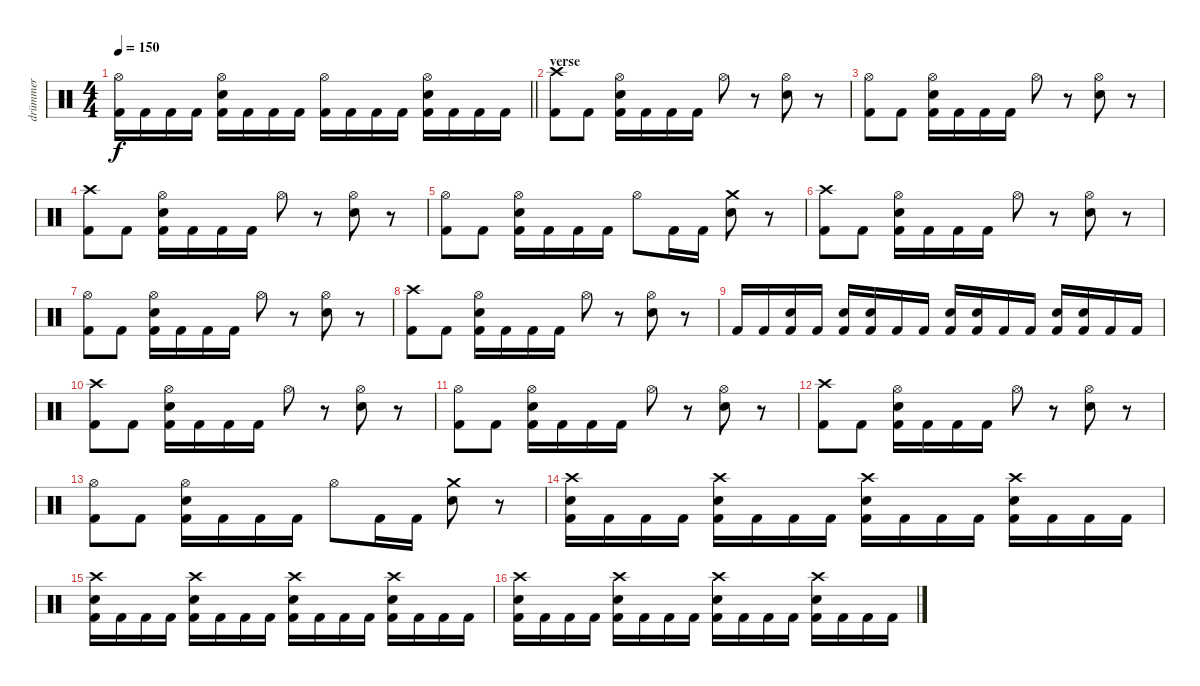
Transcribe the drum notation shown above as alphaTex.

\track ("drümmer" "drümmer") {instrument percussion}
\staff {score}
\articulation defaults
\ts (4 4)
\tempo 150
\clef neutral
\barLineRight lightlight
\ks c
("Hi-Hat (open)" "Kick (hit) 2").16{dy f} "Kick (hit) 2".16 "Kick (hit) 2".16 "Kick (hit) 2".16 ("Hi-Hat (open)" "Snare (hit) 2" "Kick (hit) 2").16 "Kick (hit) 2".16 "Kick (hit) 2".16 "Kick (hit) 2".16 ("Hi-Hat (open)" "Kick (hit) 2").16 "Kick (hit) 2".16 "Kick (hit) 2".16 "Kick (hit) 2".16 ("Hi-Hat (open)" "Snare (hit) 2" "Kick (hit) 2").16 "Kick (hit) 2".16 "Kick (hit) 2".16 "Kick (hit) 2".16 |
\section ("" "verse")
("Crash high (hit)" "Kick (hit) 2").8 "Kick (hit) 2".8 ("Hi-Hat (open)" "Snare (hit) 2" "Kick (hit) 2").16 "Kick (hit) 2".16 "Kick (hit) 2".16 "Kick (hit) 2".16 "Hi-Hat (open)".8 r.8 ("Hi-Hat (open)" "Snare (hit) 2").8 r.8 |
("Hi-Hat (open)" "Kick (hit) 2").8 "Kick (hit) 2".8 ("Hi-Hat (open)" "Snare (hit) 2" "Kick (hit) 2").16 "Kick (hit) 2".16 "Kick (hit) 2".16 "Kick (hit) 2".16 "Hi-Hat (open)".8 r.8 ("Hi-Hat (open)" "Snare (hit) 2").8 r.8 |
("Crash high (hit)" "Kick (hit) 2").8 "Kick (hit) 2".8 ("Hi-Hat (open)" "Snare (hit) 2" "Kick (hit) 2").16 "Kick (hit) 2".16 "Kick (hit) 2".16 "Kick (hit) 2".16 "Hi-Hat (open)".8 r.8 ("Hi-Hat (open)" "Snare (hit) 2").8 r.8 |
("Hi-Hat (open)" "Kick (hit) 2").8 "Kick (hit) 2".8 ("Hi-Hat (open)" "Snare (hit) 2" "Kick (hit) 2").16 "Kick (hit) 2".16 "Kick (hit) 2".16 "Kick (hit) 2".16 "Hi-Hat (open)".8 "Kick (hit) 2".16 "Kick (hit) 2".16 ("Crash medium (hit)" "Snare (hit) 2").8 r.8 |
("Crash high (hit)" "Kick (hit) 2").8 "Kick (hit) 2".8 ("Hi-Hat (open)" "Snare (hit) 2" "Kick (hit) 2").16 "Kick (hit) 2".16 "Kick (hit) 2".16 "Kick (hit) 2".16 "Hi-Hat (open)".8 r.8 ("Hi-Hat (open)" "Snare (hit) 2").8 r.8 |
("Hi-Hat (open)" "Kick (hit) 2").8 "Kick (hit) 2".8 ("Hi-Hat (open)" "Snare (hit) 2" "Kick (hit) 2").16 "Kick (hit) 2".16 "Kick (hit) 2".16 "Kick (hit) 2".16 "Hi-Hat (open)".8 r.8 ("Hi-Hat (open)" "Snare (hit) 2").8 r.8 |
("Crash high (hit)" "Kick (hit) 2").8 "Kick (hit) 2".8 ("Hi-Hat (open)" "Snare (hit) 2" "Kick (hit) 2").16 "Kick (hit) 2".16 "Kick (hit) 2".16 "Kick (hit) 2".16 "Hi-Hat (open)".8 r.8 ("Hi-Hat (open)" "Snare (hit) 2").8 r.8 |
"Kick (hit) 2".16 "Kick (hit) 2".16 ("Snare (hit) 2" "Kick (hit) 2").16 "Kick (hit) 2".16 ("Snare (hit) 2" "Kick (hit) 2").16 ("Snare (hit) 2" "Kick (hit) 2").16 "Kick (hit) 2".16 "Kick (hit) 2".16 ("Snare (hit) 2" "Kick (hit) 2").16 ("Snare (hit) 2" "Kick (hit) 2").16 "Kick (hit) 2".16 "Kick (hit) 2".16 ("Snare (hit) 2" "Kick (hit) 2").16 ("Snare (hit) 2" "Kick (hit) 2").16 "Kick (hit) 2".16 "Kick (hit) 2".16 |
("Crash high (hit)" "Kick (hit) 2").8 "Kick (hit) 2".8 ("Hi-Hat (open)" "Snare (hit) 2" "Kick (hit) 2").16 "Kick (hit) 2".16 "Kick (hit) 2".16 "Kick (hit) 2".16 "Hi-Hat (open)".8 r.8 ("Hi-Hat (open)" "Snare (hit) 2").8 r.8 |
("Hi-Hat (open)" "Kick (hit) 2").8 "Kick (hit) 2".8 ("Hi-Hat (open)" "Snare (hit) 2" "Kick (hit) 2").16 "Kick (hit) 2".16 "Kick (hit) 2".16 "Kick (hit) 2".16 "Hi-Hat (open)".8 r.8 ("Hi-Hat (open)" "Snare (hit) 2").8 r.8 |
("Crash high (hit)" "Kick (hit) 2").8 "Kick (hit) 2".8 ("Hi-Hat (open)" "Snare (hit) 2" "Kick (hit) 2").16 "Kick (hit) 2".16 "Kick (hit) 2".16 "Kick (hit) 2".16 "Hi-Hat (open)".8 r.8 ("Hi-Hat (open)" "Snare (hit) 2").8 r.8 |
("Hi-Hat (open)" "Kick (hit) 2").8 "Kick (hit) 2".8 ("Hi-Hat (open)" "Snare (hit) 2" "Kick (hit) 2").16 "Kick (hit) 2".16 "Kick (hit) 2".16 "Kick (hit) 2".16 "Hi-Hat (open)".8 "Kick (hit) 2".16 "Kick (hit) 2".16 ("Crash medium (hit)" "Snare (hit) 2").8 r.8 |
("Crash high (hit)" "Snare (hit) 2" "Kick (hit) 2").16 "Kick (hit) 2".16 "Kick (hit) 2".16 "Kick (hit) 2".16 ("Crash high (hit)" "Snare (hit) 2" "Kick (hit) 2").16 "Kick (hit) 2".16 "Kick (hit) 2".16 "Kick (hit) 2".16 ("Crash high (hit)" "Snare (hit) 2" "Kick (hit) 2").16 "Kick (hit) 2".16 "Kick (hit) 2".16 "Kick (hit) 2".16 ("Crash high (hit)" "Snare (hit) 2" "Kick (hit) 2").16 "Kick (hit) 2".16 "Kick (hit) 2".16 "Kick (hit) 2".16 |
("Crash high (hit)" "Snare (hit) 2" "Kick (hit) 2").16 "Kick (hit) 2".16 "Kick (hit) 2".16 "Kick (hit) 2".16 ("Crash high (hit)" "Snare (hit) 2" "Kick (hit) 2").16 "Kick (hit) 2".16 "Kick (hit) 2".16 "Kick (hit) 2".16 ("Crash high (hit)" "Snare (hit) 2" "Kick (hit) 2").16 "Kick (hit) 2".16 "Kick (hit) 2".16 "Kick (hit) 2".16 ("Crash high (hit)" "Snare (hit) 2" "Kick (hit) 2").16 "Kick (hit) 2".16 "Kick (hit) 2".16 "Kick (hit) 2".16 |
("Crash high (hit)" "Snare (hit) 2" "Kick (hit) 2").16 "Kick (hit) 2".16 "Kick (hit) 2".16 "Kick (hit) 2".16 ("Crash high (hit)" "Snare (hit) 2" "Kick (hit) 2").16 "Kick (hit) 2".16 "Kick (hit) 2".16 "Kick (hit) 2".16 ("Crash high (hit)" "Snare (hit) 2" "Kick (hit) 2").16 "Kick (hit) 2".16 "Kick (hit) 2".16 "Kick (hit) 2".16 ("Crash high (hit)" "Snare (hit) 2" "Kick (hit) 2").16 "Kick (hit) 2".16 "Kick (hit) 2".16 "Kick (hit) 2".16
